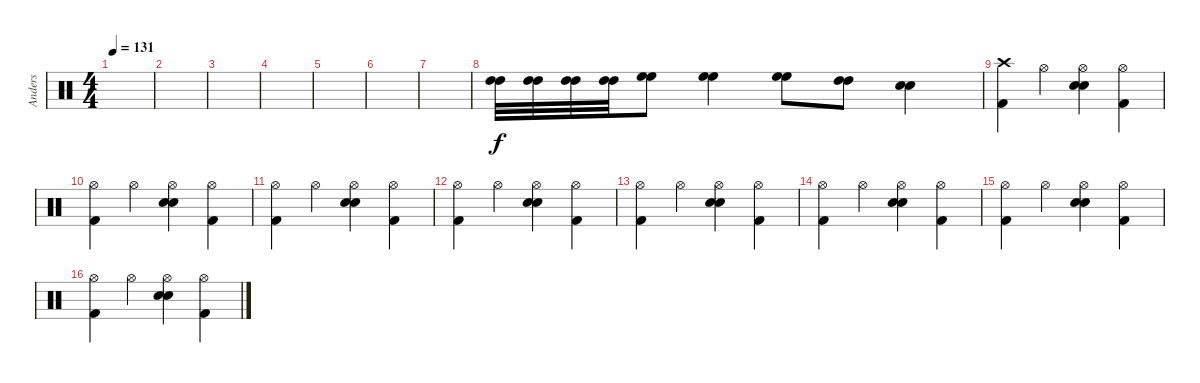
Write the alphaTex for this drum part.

\track ("Anders" "Anders") {instrument percussion}
\staff {score}
\articulation defaults
\ts (4 4)
\tempo 131
\clef neutral
\ks c
|
|
|
|
|
|
|
("High Tom (hit)" "High Tom (hit)").32 ("High Tom (hit)" "High Tom (hit)").32 ("High Tom (hit)" "High Tom (hit)").32 ("High Tom (hit)" "High Tom (hit)").32 ("High Floor Tom (hit)" "High Floor Tom (hit)").8 ("High Floor Tom (hit)" "High Floor Tom (hit)").4 ("High Floor Tom (hit)" "High Floor Tom (hit)").8 ("High Tom (hit)" "High Tom (hit)").8 ("Electric Snare (hit)" "Electric Snare (hit)").4 |
("Crash high (hit)" "Kick (hit) 2").4 "Hi-Hat (open)".4 ("Hi-Hat (open)" "Electric Snare (hit)" "Electric Snare (hit)").4 ("Hi-Hat (open)" "Kick (hit) 2").4 |
("Hi-Hat (open)" "Kick (hit) 2").4 "Hi-Hat (open)".4 ("Hi-Hat (open)" "Electric Snare (hit)" "Electric Snare (hit)").4 ("Hi-Hat (open)" "Kick (hit) 2").4 |
("Hi-Hat (open)" "Kick (hit) 2").4 "Hi-Hat (open)".4 ("Hi-Hat (open)" "Electric Snare (hit)" "Electric Snare (hit)").4 ("Hi-Hat (open)" "Kick (hit) 2").4 |
("Hi-Hat (open)" "Kick (hit) 2").4 "Hi-Hat (open)".4 ("Hi-Hat (open)" "Electric Snare (hit)" "Electric Snare (hit)").4 ("Hi-Hat (open)" "Kick (hit) 2").4 |
("Hi-Hat (open)" "Kick (hit) 2").4 "Hi-Hat (open)".4 ("Hi-Hat (open)" "Electric Snare (hit)" "Electric Snare (hit)").4 ("Hi-Hat (open)" "Kick (hit) 2").4 |
("Hi-Hat (open)" "Kick (hit) 2").4 "Hi-Hat (open)".4 ("Hi-Hat (open)" "Electric Snare (hit)" "Electric Snare (hit)").4 ("Hi-Hat (open)" "Kick (hit) 2").4 |
("Hi-Hat (open)" "Kick (hit) 2").4 "Hi-Hat (open)".4 ("Hi-Hat (open)" "Electric Snare (hit)" "Electric Snare (hit)").4 ("Hi-Hat (open)" "Kick (hit) 2").4 |
("Hi-Hat (open)" "Kick (hit) 2").4 "Hi-Hat (open)".4 ("Hi-Hat (open)" "Electric Snare (hit)" "Electric Snare (hit)").4 ("Hi-Hat (open)" "Kick (hit) 2").4
